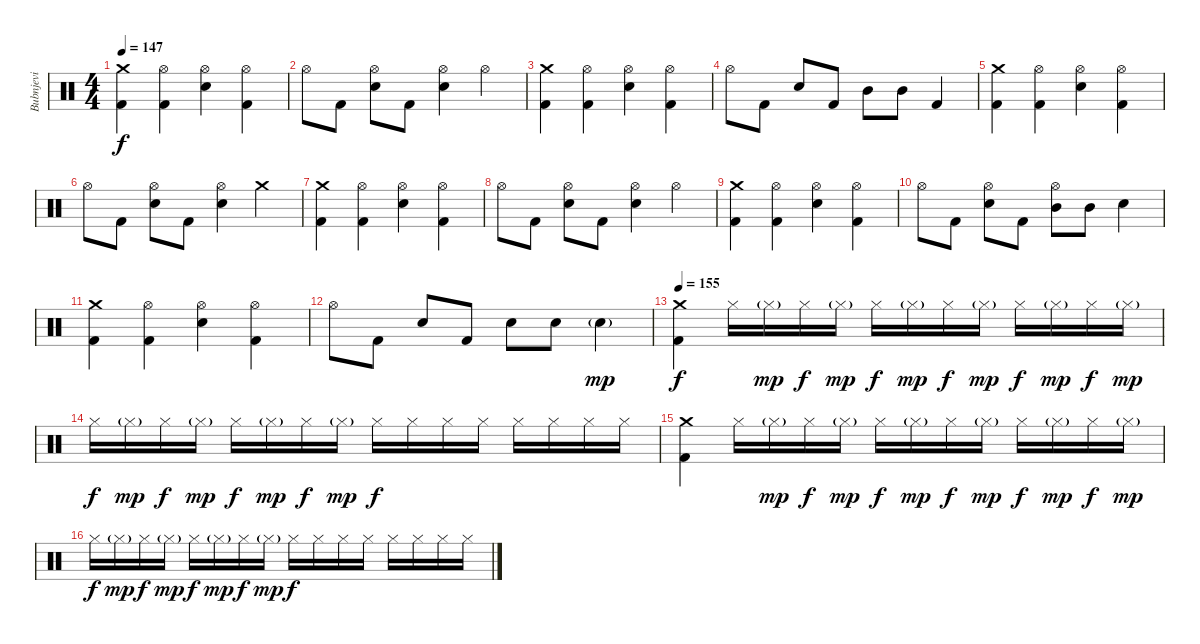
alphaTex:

\track ("Bubnjevi" "Bubnjevi") {instrument percussion}
\staff {score}
\articulation defaults
\ts (4 4)
\tempo 147
\clef neutral
\ks c
("Crash medium (hit)" "Kick (hit) 2").4{dy f} ("Hi-Hat (open)" "Kick (hit) 2").4 ("Hi-Hat (open)" "Electric Snare (hit)").4 ("Hi-Hat (open)" "Kick (hit) 2").4 |
"Hi-Hat (open)".8 "Kick (hit) 2".8 ("Hi-Hat (open)" "Electric Snare (hit)").8 "Kick (hit) 2".8 ("Hi-Hat (open)" "Electric Snare (hit)").4 "Hi-Hat (open)".4 |
("Crash medium (hit)" "Kick (hit) 2").4 ("Hi-Hat (open)" "Kick (hit) 2").4 ("Hi-Hat (open)" "Electric Snare (hit)").4 ("Hi-Hat (open)" "Kick (hit) 2").4 |
"Hi-Hat (open)".8 "Kick (hit) 2".8 "Electric Snare (hit)".8 "Kick (hit) 2".8 "Mid Tom (hit)".8 "Mid Tom (hit)".8 "Kick (hit) 2".4 |
("Crash medium (hit)" "Kick (hit) 2").4 ("Hi-Hat (open)" "Kick (hit) 2").4 ("Hi-Hat (open)" "Electric Snare (hit)").4 ("Hi-Hat (open)" "Kick (hit) 2").4 |
"Hi-Hat (open)".8 "Kick (hit) 2".8 ("Hi-Hat (open)" "Electric Snare (hit)").8 "Kick (hit) 2".8 ("Hi-Hat (open)" "Electric Snare (hit)").4 "Crash medium (hit)".4 |
("Crash medium (hit)" "Kick (hit) 2").4 ("Hi-Hat (open)" "Kick (hit) 2").4 ("Hi-Hat (open)" "Electric Snare (hit)").4 ("Hi-Hat (open)" "Kick (hit) 2").4 |
"Hi-Hat (open)".8 "Kick (hit) 2".8 ("Hi-Hat (open)" "Electric Snare (hit)").8 "Kick (hit) 2".8 ("Hi-Hat (open)" "Electric Snare (hit)").4 "Hi-Hat (open)".4 |
("Crash medium (hit)" "Kick (hit) 2").4 ("Hi-Hat (open)" "Kick (hit) 2").4 ("Hi-Hat (open)" "Electric Snare (hit)").4 ("Hi-Hat (open)" "Kick (hit) 2").4 |
"Hi-Hat (open)".8 "Kick (hit) 2".8 ("Hi-Hat (open)" "Electric Snare (hit)").8 "Kick (hit) 2".8 ("Hi-Hat (open)" "Mid Tom (hit)").8 "Mid Tom (hit)".8 "Electric Snare (hit)".4 |
("Crash medium (hit)" "Kick (hit) 2").4 ("Hi-Hat (open)" "Kick (hit) 2").4 ("Hi-Hat (open)" "Electric Snare (hit)").4 ("Hi-Hat (open)" "Kick (hit) 2").4 |
"Hi-Hat (open)".8 "Kick (hit) 2".8 "Electric Snare (hit)".8 "Kick (hit) 2".8 "Electric Snare (hit)".8 "Electric Snare (hit)".8 "Electric Snare (hit)"{g}.4{dy mp} |
\tempo 155
("Crash medium (hit)" "Kick (hit) 2").4{dy f} "Hi-Hat (closed)".16 "Hi-Hat (closed)"{g}.16{dy mp} "Hi-Hat (closed)".16{dy f} "Hi-Hat (closed)"{g}.16{dy mp} "Hi-Hat (closed)".16{dy f} "Hi-Hat (closed)"{g}.16{dy mp} "Hi-Hat (closed)".16{dy f} "Hi-Hat (closed)"{g}.16{dy mp} "Hi-Hat (closed)".16{dy f} "Hi-Hat (closed)"{g}.16{dy mp} "Hi-Hat (closed)".16{dy f} "Hi-Hat (closed)"{g}.16{dy mp} |
"Hi-Hat (closed)".16{dy f} "Hi-Hat (closed)"{g}.16{dy mp} "Hi-Hat (closed)".16{dy f} "Hi-Hat (closed)"{g}.16{dy mp} "Hi-Hat (closed)".16{dy f} "Hi-Hat (closed)"{g}.16{dy mp} "Hi-Hat (closed)".16{dy f} "Hi-Hat (closed)"{g}.16{dy mp} "Hi-Hat (closed)".16{dy f} "Hi-Hat (closed)".16 "Hi-Hat (closed)".16 "Hi-Hat (closed)".16 "Hi-Hat (closed)".16 "Hi-Hat (closed)".16 "Hi-Hat (closed)".16 "Hi-Hat (closed)".16 |
("Crash medium (hit)" "Kick (hit) 2").4 "Hi-Hat (closed)".16 "Hi-Hat (closed)"{g}.16{dy mp} "Hi-Hat (closed)".16{dy f} "Hi-Hat (closed)"{g}.16{dy mp} "Hi-Hat (closed)".16{dy f} "Hi-Hat (closed)"{g}.16{dy mp} "Hi-Hat (closed)".16{dy f} "Hi-Hat (closed)"{g}.16{dy mp} "Hi-Hat (closed)".16{dy f} "Hi-Hat (closed)"{g}.16{dy mp} "Hi-Hat (closed)".16{dy f} "Hi-Hat (closed)"{g}.16{dy mp} |
"Hi-Hat (closed)".16{dy f} "Hi-Hat (closed)"{g}.16{dy mp} "Hi-Hat (closed)".16{dy f} "Hi-Hat (closed)"{g}.16{dy mp} "Hi-Hat (closed)".16{dy f} "Hi-Hat (closed)"{g}.16{dy mp} "Hi-Hat (closed)".16{dy f} "Hi-Hat (closed)"{g}.16{dy mp} "Hi-Hat (closed)".16{dy f} "Hi-Hat (closed)".16 "Hi-Hat (closed)".16 "Hi-Hat (closed)".16 "Hi-Hat (closed)".16 "Hi-Hat (closed)".16 "Hi-Hat (closed)".16 "Hi-Hat (closed)".16
